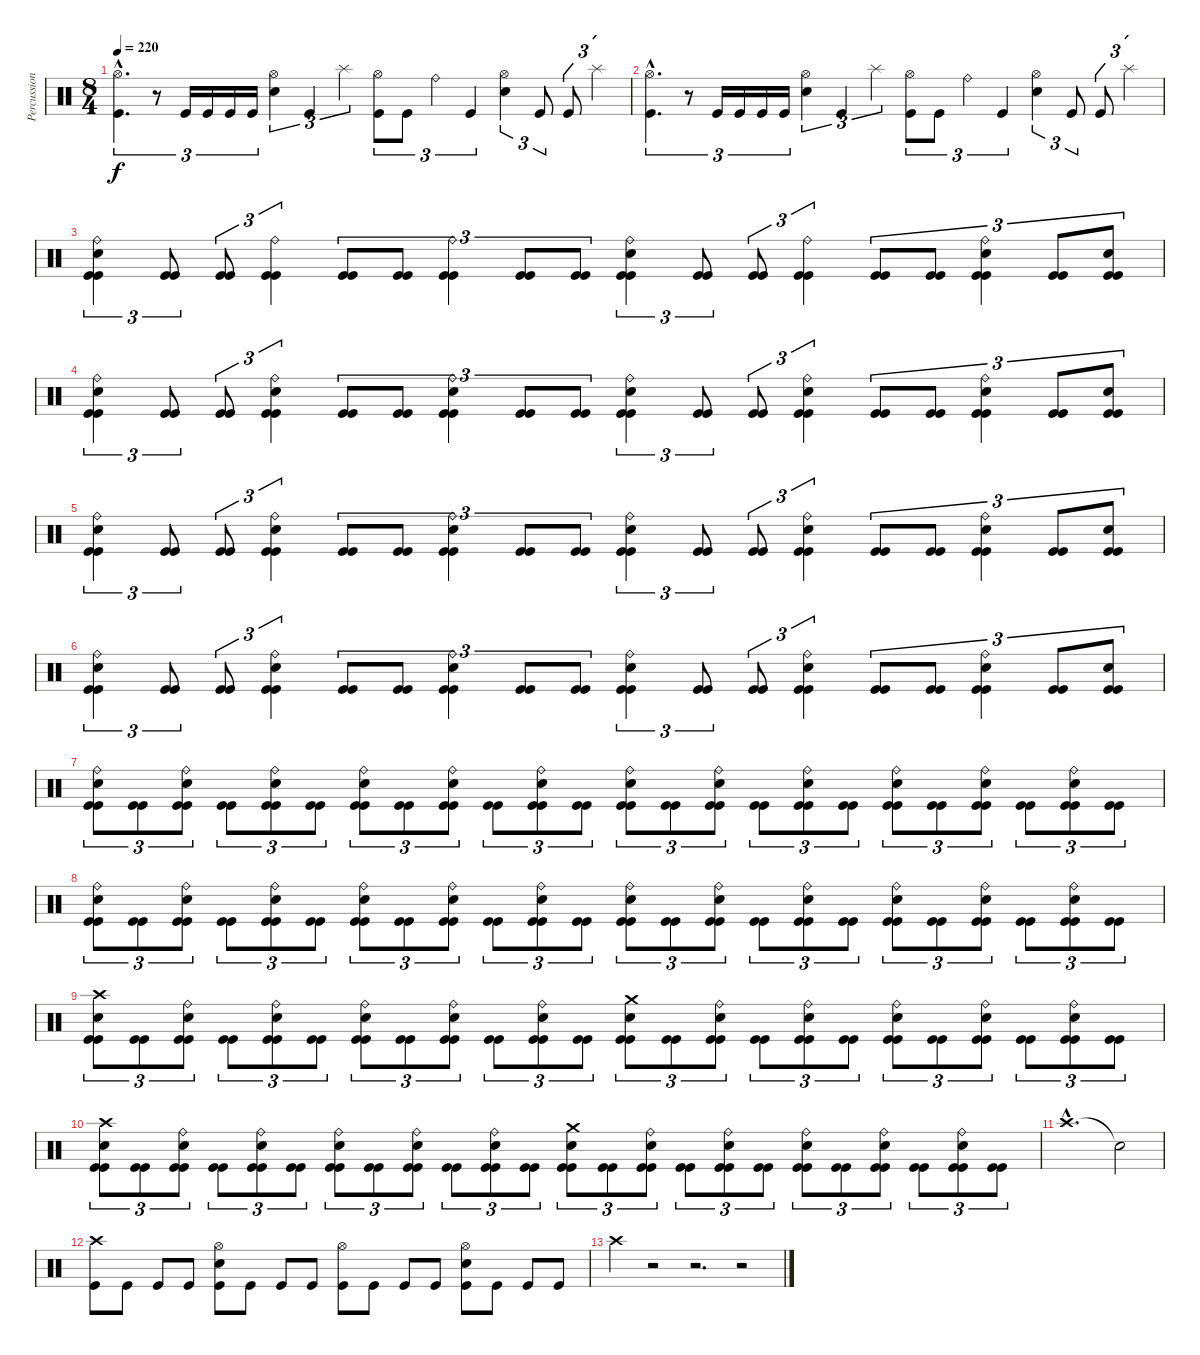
\track ("Percussion" "Percussion") {instrument percussion}
\staff {score}
\articulation defaults
\ts (8 4)
\tempo 220
\clef neutral
\ks c
("Hi-Hat (open)"{hac} "Kick (hit)"{hac}).4{d tu (3 2) dy f} r.8{tu (3 2)} "Kick (hit)".16{tu (3 2)} "Kick (hit)".16{tu (3 2)} "Kick (hit)".16{tu (3 2)} "Kick (hit)".16{tu (3 2)} ("Hi-Hat (open)" "Snare (hit) 2").4{tu (3 2)} "Kick (hit)".4{tu (3 2)} "Splash (hit)".4{tu (3 2)} ("Hi-Hat (open)" "Kick (hit)").8{tu (3 2)} "Kick (hit)".8{tu (3 2)} "Ride (bell)".4{tu (3 2)} "Kick (hit)".4{tu (3 2)} ("Hi-Hat (open)" "Snare (hit) 2").4{tu (3 2)} "Kick (hit)".8{tu (3 2)} "Kick (hit)".8{tu (3 2)} "Splash (hit)".4{tu (3 2)} |
("Hi-Hat (open)"{hac} "Kick (hit)"{hac}).4{d tu (3 2)} r.8{tu (3 2)} "Kick (hit)".16{tu (3 2)} "Kick (hit)".16{tu (3 2)} "Kick (hit)".16{tu (3 2)} "Kick (hit)".16{tu (3 2)} ("Hi-Hat (open)" "Snare (hit) 2").4{tu (3 2)} "Kick (hit)".4{tu (3 2)} "Splash (hit)".4{tu (3 2)} ("Hi-Hat (open)" "Kick (hit)").8{tu (3 2)} "Kick (hit)".8{tu (3 2)} "Ride (bell)".4{tu (3 2)} "Kick (hit)".4{tu (3 2)} ("Hi-Hat (open)" "Snare (hit) 2").4{tu (3 2)} "Kick (hit)".8{tu (3 2)} "Kick (hit)".8{tu (3 2)} "Splash (hit)".4{tu (3 2)} |
("Ride (bell)" "Snare (hit) 2" "Kick (hit)" "Kick (hit)").4{tu (3 2)} ("Kick (hit)" "Kick (hit)").8{tu (3 2)} ("Kick (hit)" "Kick (hit)").8{tu (3 2)} ("Ride (bell)" "Kick (hit)" "Kick (hit)").4{tu (3 2)} ("Kick (hit)" "Kick (hit)").8{tu (3 2)} ("Kick (hit)" "Kick (hit)").8{tu (3 2)} ("Ride (bell)" "Kick (hit)" "Kick (hit)").4{tu (3 2)} ("Kick (hit)" "Kick (hit)").8{tu (3 2)} ("Kick (hit)" "Kick (hit)").8{tu (3 2)} ("Ride (bell)" "Snare (hit) 2" "Kick (hit)" "Kick (hit)").4{tu (3 2)} ("Kick (hit)" "Kick (hit)").8{tu (3 2)} ("Kick (hit)" "Kick (hit)").8{tu (3 2)} ("Ride (bell)" "Kick (hit)" "Kick (hit)").4{tu (3 2)} ("Kick (hit)" "Kick (hit)").8{tu (3 2)} ("Kick (hit)" "Kick (hit)").8{tu (3 2)} ("Ride (bell)" "Snare (hit) 2" "Kick (hit)" "Kick (hit)").4{tu (3 2)} ("Kick (hit)" "Kick (hit)").8{tu (3 2)} ("Snare (hit) 2" "Kick (hit)" "Kick (hit)").8{tu (3 2)} |
("Ride (bell)" "Snare (hit) 2" "Kick (hit)" "Kick (hit)").4{tu (3 2)} ("Kick (hit)" "Kick (hit)").8{tu (3 2)} ("Kick (hit)" "Kick (hit)").8{tu (3 2)} ("Ride (bell)" "Snare (hit) 2" "Kick (hit)" "Kick (hit)").4{tu (3 2)} ("Kick (hit)" "Kick (hit)").8{tu (3 2)} ("Kick (hit)" "Kick (hit)").8{tu (3 2)} ("Ride (bell)" "Snare (hit) 2" "Kick (hit)" "Kick (hit)").4{tu (3 2)} ("Kick (hit)" "Kick (hit)").8{tu (3 2)} ("Kick (hit)" "Kick (hit)").8{tu (3 2)} ("Ride (bell)" "Snare (hit) 2" "Kick (hit)" "Kick (hit)").4{tu (3 2)} ("Kick (hit)" "Kick (hit)").8{tu (3 2)} ("Kick (hit)" "Kick (hit)").8{tu (3 2)} ("Ride (bell)" "Snare (hit) 2" "Kick (hit)" "Kick (hit)").4{tu (3 2)} ("Kick (hit)" "Kick (hit)").8{tu (3 2)} ("Kick (hit)" "Kick (hit)").8{tu (3 2)} ("Ride (bell)" "Snare (hit) 2" "Kick (hit)" "Kick (hit)").4{tu (3 2)} ("Kick (hit)" "Kick (hit)").8{tu (3 2)} ("Snare (hit) 2" "Kick (hit)" "Kick (hit)").8{tu (3 2)} |
("Ride (bell)" "Snare (hit) 2" "Kick (hit)" "Kick (hit)").4{tu (3 2)} ("Kick (hit)" "Kick (hit)").8{tu (3 2)} ("Kick (hit)" "Kick (hit)").8{tu (3 2)} ("Ride (bell)" "Snare (hit) 2" "Kick (hit)" "Kick (hit)").4{tu (3 2)} ("Kick (hit)" "Kick (hit)").8{tu (3 2)} ("Kick (hit)" "Kick (hit)").8{tu (3 2)} ("Ride (bell)" "Snare (hit) 2" "Kick (hit)" "Kick (hit)").4{tu (3 2)} ("Kick (hit)" "Kick (hit)").8{tu (3 2)} ("Kick (hit)" "Kick (hit)").8{tu (3 2)} ("Ride (bell)" "Snare (hit) 2" "Kick (hit)" "Kick (hit)").4{tu (3 2)} ("Kick (hit)" "Kick (hit)").8{tu (3 2)} ("Kick (hit)" "Kick (hit)").8{tu (3 2)} ("Ride (bell)" "Snare (hit) 2" "Kick (hit)" "Kick (hit)").4{tu (3 2)} ("Kick (hit)" "Kick (hit)").8{tu (3 2)} ("Kick (hit)" "Kick (hit)").8{tu (3 2)} ("Ride (bell)" "Snare (hit) 2" "Kick (hit)" "Kick (hit)").4{tu (3 2)} ("Kick (hit)" "Kick (hit)").8{tu (3 2)} ("Snare (hit) 2" "Kick (hit)" "Kick (hit)").8{tu (3 2)} |
("Ride (bell)" "Snare (hit) 2" "Kick (hit)" "Kick (hit)").4{tu (3 2)} ("Kick (hit)" "Kick (hit)").8{tu (3 2)} ("Kick (hit)" "Kick (hit)").8{tu (3 2)} ("Ride (bell)" "Snare (hit) 2" "Kick (hit)" "Kick (hit)").4{tu (3 2)} ("Kick (hit)" "Kick (hit)").8{tu (3 2)} ("Kick (hit)" "Kick (hit)").8{tu (3 2)} ("Ride (bell)" "Snare (hit) 2" "Kick (hit)" "Kick (hit)").4{tu (3 2)} ("Kick (hit)" "Kick (hit)").8{tu (3 2)} ("Kick (hit)" "Kick (hit)").8{tu (3 2)} ("Ride (bell)" "Snare (hit) 2" "Kick (hit)" "Kick (hit)").4{tu (3 2)} ("Kick (hit)" "Kick (hit)").8{tu (3 2)} ("Kick (hit)" "Kick (hit)").8{tu (3 2)} ("Ride (bell)" "Snare (hit) 2" "Kick (hit)" "Kick (hit)").4{tu (3 2)} ("Kick (hit)" "Kick (hit)").8{tu (3 2)} ("Kick (hit)" "Kick (hit)").8{tu (3 2)} ("Ride (bell)" "Snare (hit) 2" "Kick (hit)" "Kick (hit)").4{tu (3 2)} ("Kick (hit)" "Kick (hit)").8{tu (3 2)} ("Snare (hit) 2" "Kick (hit)" "Kick (hit)").8{tu (3 2)} |
("Ride (bell)" "Snare (hit) 2" "Kick (hit)" "Kick (hit)").8{tu (3 2)} ("Kick (hit)" "Kick (hit)").8{tu (3 2)} ("Ride (bell)" "Snare (hit) 2" "Kick (hit)" "Kick (hit)").8{tu (3 2)} ("Kick (hit)" "Kick (hit)").8{tu (3 2)} ("Ride (bell)" "Snare (hit) 2" "Kick (hit)" "Kick (hit)").8{tu (3 2)} ("Kick (hit)" "Kick (hit)").8{tu (3 2)} ("Ride (bell)" "Snare (hit) 2" "Kick (hit)" "Kick (hit)").8{tu (3 2)} ("Kick (hit)" "Kick (hit)").8{tu (3 2)} ("Ride (bell)" "Snare (hit) 2" "Kick (hit)" "Kick (hit)").8{tu (3 2)} ("Kick (hit)" "Kick (hit)").8{tu (3 2)} ("Ride (bell)" "Snare (hit) 2" "Kick (hit)" "Kick (hit)").8{tu (3 2)} ("Kick (hit)" "Kick (hit)").8{tu (3 2)} ("Ride (bell)" "Snare (hit) 2" "Kick (hit)" "Kick (hit)").8{tu (3 2)} ("Kick (hit)" "Kick (hit)").8{tu (3 2)} ("Ride (bell)" "Snare (hit) 2" "Kick (hit)" "Kick (hit)").8{tu (3 2)} ("Kick (hit)" "Kick (hit)").8{tu (3 2)} ("Ride (bell)" "Snare (hit) 2" "Kick (hit)" "Kick (hit)").8{tu (3 2)} ("Kick (hit)" "Kick (hit)").8{tu (3 2)} ("Ride (bell)" "Snare (hit) 2" "Kick (hit)" "Kick (hit)").8{tu (3 2)} ("Kick (hit)" "Kick (hit)").8{tu (3 2)} ("Ride (bell)" "Snare (hit) 2" "Kick (hit)" "Kick (hit)").8{tu (3 2)} ("Kick (hit)" "Kick (hit)").8{tu (3 2)} ("Ride (bell)" "Snare (hit) 2" "Kick (hit)" "Kick (hit)").8{tu (3 2)} ("Kick (hit)" "Kick (hit)").8{tu (3 2)} |
("Ride (bell)" "Snare (hit) 2" "Kick (hit)" "Kick (hit)").8{tu (3 2)} ("Kick (hit)" "Kick (hit)").8{tu (3 2)} ("Ride (bell)" "Snare (hit) 2" "Kick (hit)" "Kick (hit)").8{tu (3 2)} ("Kick (hit)" "Kick (hit)").8{tu (3 2)} ("Ride (bell)" "Snare (hit) 2" "Kick (hit)" "Kick (hit)").8{tu (3 2)} ("Kick (hit)" "Kick (hit)").8{tu (3 2)} ("Ride (bell)" "Snare (hit) 2" "Kick (hit)" "Kick (hit)").8{tu (3 2)} ("Kick (hit)" "Kick (hit)").8{tu (3 2)} ("Ride (bell)" "Snare (hit) 2" "Kick (hit)" "Kick (hit)").8{tu (3 2)} ("Kick (hit)" "Kick (hit)").8{tu (3 2)} ("Ride (bell)" "Snare (hit) 2" "Kick (hit)" "Kick (hit)").8{tu (3 2)} ("Kick (hit)" "Kick (hit)").8{tu (3 2)} ("Ride (bell)" "Snare (hit) 2" "Kick (hit)" "Kick (hit)").8{tu (3 2)} ("Kick (hit)" "Kick (hit)").8{tu (3 2)} ("Ride (bell)" "Snare (hit) 2" "Kick (hit)" "Kick (hit)").8{tu (3 2)} ("Kick (hit)" "Kick (hit)").8{tu (3 2)} ("Ride (bell)" "Snare (hit) 2" "Kick (hit)" "Kick (hit)").8{tu (3 2)} ("Kick (hit)" "Kick (hit)").8{tu (3 2)} ("Ride (bell)" "Snare (hit) 2" "Kick (hit)" "Kick (hit)").8{tu (3 2)} ("Kick (hit)" "Kick (hit)").8{tu (3 2)} ("Ride (bell)" "Snare (hit) 2" "Kick (hit)" "Kick (hit)").8{tu (3 2)} ("Kick (hit)" "Kick (hit)").8{tu (3 2)} ("Ride (bell)" "Snare (hit) 2" "Kick (hit)" "Kick (hit)").8{tu (3 2)} ("Kick (hit)" "Kick (hit)").8{tu (3 2)} |
("Crash high (hit)" "Snare (hit) 2" "Kick (hit)" "Kick (hit)").8{tu (3 2)} ("Kick (hit)" "Kick (hit)").8{tu (3 2)} ("Ride (bell)" "Snare (hit) 2" "Kick (hit)" "Kick (hit)").8{tu (3 2)} ("Kick (hit)" "Kick (hit)").8{tu (3 2)} ("Ride (bell)" "Snare (hit) 2" "Kick (hit)" "Kick (hit)").8{tu (3 2)} ("Kick (hit)" "Kick (hit)").8{tu (3 2)} ("Ride (bell)" "Snare (hit) 2" "Kick (hit)" "Kick (hit)").8{tu (3 2)} ("Kick (hit)" "Kick (hit)").8{tu (3 2)} ("Ride (bell)" "Snare (hit) 2" "Kick (hit)" "Kick (hit)").8{tu (3 2)} ("Kick (hit)" "Kick (hit)").8{tu (3 2)} ("Ride (bell)" "Snare (hit) 2" "Kick (hit)" "Kick (hit)").8{tu (3 2)} ("Kick (hit)" "Kick (hit)").8{tu (3 2)} ("Crash medium (hit)" "Snare (hit) 2" "Kick (hit)" "Kick (hit)").8{tu (3 2)} ("Kick (hit)" "Kick (hit)").8{tu (3 2)} ("Ride (bell)" "Snare (hit) 2" "Kick (hit)" "Kick (hit)").8{tu (3 2)} ("Kick (hit)" "Kick (hit)").8{tu (3 2)} ("Ride (bell)" "Snare (hit) 2" "Kick (hit)" "Kick (hit)").8{tu (3 2)} ("Kick (hit)" "Kick (hit)").8{tu (3 2)} ("Ride (bell)" "Snare (hit) 2" "Kick (hit)" "Kick (hit)").8{tu (3 2)} ("Kick (hit)" "Kick (hit)").8{tu (3 2)} ("Ride (bell)" "Snare (hit) 2" "Kick (hit)" "Kick (hit)").8{tu (3 2)} ("Kick (hit)" "Kick (hit)").8{tu (3 2)} ("Ride (bell)" "Snare (hit) 2" "Kick (hit)" "Kick (hit)").8{tu (3 2)} ("Kick (hit)" "Kick (hit)").8{tu (3 2)} |
("Crash high (hit)" "Snare (hit) 2" "Kick (hit)" "Kick (hit)").8{tu (3 2)} ("Kick (hit)" "Kick (hit)").8{tu (3 2)} ("Ride (bell)" "Snare (hit) 2" "Kick (hit)" "Kick (hit)").8{tu (3 2)} ("Kick (hit)" "Kick (hit)").8{tu (3 2)} ("Ride (bell)" "Snare (hit) 2" "Kick (hit)" "Kick (hit)").8{tu (3 2)} ("Kick (hit)" "Kick (hit)").8{tu (3 2)} ("Ride (bell)" "Snare (hit) 2" "Kick (hit)" "Kick (hit)").8{tu (3 2)} ("Kick (hit)" "Kick (hit)").8{tu (3 2)} ("Ride (bell)" "Snare (hit) 2" "Kick (hit)" "Kick (hit)").8{tu (3 2)} ("Kick (hit)" "Kick (hit)").8{tu (3 2)} ("Ride (bell)" "Snare (hit) 2" "Kick (hit)" "Kick (hit)").8{tu (3 2)} ("Kick (hit)" "Kick (hit)").8{tu (3 2)} ("Crash medium (hit)" "Snare (hit) 2" "Kick (hit)" "Kick (hit)").8{tu (3 2)} ("Kick (hit)" "Kick (hit)").8{tu (3 2)} ("Ride (bell)" "Snare (hit) 2" "Kick (hit)" "Kick (hit)").8{tu (3 2)} ("Kick (hit)" "Kick (hit)").8{tu (3 2)} ("Ride (bell)" "Snare (hit) 2" "Kick (hit)" "Kick (hit)").8{tu (3 2)} ("Kick (hit)" "Kick (hit)").8{tu (3 2)} ("Ride (bell)" "Snare (hit) 2" "Kick (hit)" "Kick (hit)").8{tu (3 2)} ("Kick (hit)" "Kick (hit)").8{tu (3 2)} ("Ride (bell)" "Snare (hit) 2" "Kick (hit)" "Kick (hit)").8{tu (3 2)} ("Kick (hit)" "Kick (hit)").8{tu (3 2)} ("Ride (bell)" "Snare (hit) 2" "Kick (hit)" "Kick (hit)").8{tu (3 2)} ("Kick (hit)" "Kick (hit)").8{tu (3 2)} |
"Crash high (hit)"{hac}.1{d} "Snare (hit)"{t}.2 |
("Crash high (hit)" "Kick (hit)").8 "Kick (hit)".8 "Kick (hit)".8 "Kick (hit)".8 ("Hi-Hat (open)" "Snare (hit) 2" "Kick (hit)").8 "Kick (hit)".8 "Kick (hit)".8 "Kick (hit)".8 ("Hi-Hat (open)" "Kick (hit)").8 "Kick (hit)".8 "Kick (hit)".8 "Kick (hit)".8 ("Hi-Hat (open)" "Snare (hit) 2" "Kick (hit)").8 "Kick (hit)".8 "Kick (hit)".8 "Kick (hit)".8 |
"Crash high (hit)".4 r.2 r.2{d} r.2
